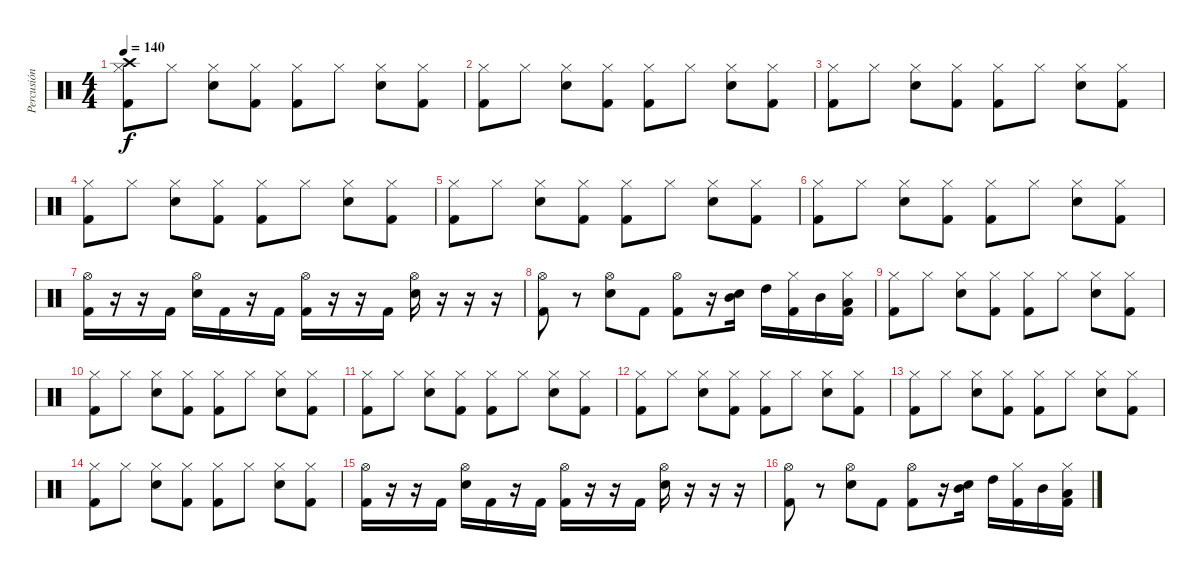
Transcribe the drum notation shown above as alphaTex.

\track ("Percusión" "Percusión") {instrument percussion}
\staff {score}
\articulation defaults
\ts (4 4)
\tempo 140
\clef neutral
\ks c
("Hi-Hat (closed)" "Kick (hit) 2" "Crash high (hit)").8{dy f} "Hi-Hat (closed)".8 ("Hi-Hat (closed)" "Snare (hit) 2").8 ("Hi-Hat (closed)" "Kick (hit) 2").8 ("Hi-Hat (closed)" "Kick (hit) 2").8 "Hi-Hat (closed)".8 ("Hi-Hat (closed)" "Snare (hit) 2").8 ("Hi-Hat (closed)" "Kick (hit) 2").8 |
("Hi-Hat (closed)" "Kick (hit) 2").8 "Hi-Hat (closed)".8 ("Hi-Hat (closed)" "Snare (hit) 2").8 ("Hi-Hat (closed)" "Kick (hit) 2").8 ("Hi-Hat (closed)" "Kick (hit) 2").8 "Hi-Hat (closed)".8 ("Hi-Hat (closed)" "Snare (hit) 2").8 ("Hi-Hat (closed)" "Kick (hit) 2").8 |
("Hi-Hat (closed)" "Kick (hit) 2").8 "Hi-Hat (closed)".8 ("Hi-Hat (closed)" "Snare (hit) 2").8 ("Hi-Hat (closed)" "Kick (hit) 2").8 ("Hi-Hat (closed)" "Kick (hit) 2").8 "Hi-Hat (closed)".8 ("Hi-Hat (closed)" "Snare (hit) 2").8 ("Hi-Hat (closed)" "Kick (hit) 2").8 |
("Hi-Hat (closed)" "Kick (hit) 2").8 "Hi-Hat (closed)".8 ("Hi-Hat (closed)" "Snare (hit) 2").8 ("Hi-Hat (closed)" "Kick (hit) 2").8 ("Hi-Hat (closed)" "Kick (hit) 2").8 "Hi-Hat (closed)".8 ("Hi-Hat (closed)" "Snare (hit) 2").8 ("Hi-Hat (closed)" "Kick (hit) 2").8 |
("Hi-Hat (closed)" "Kick (hit) 2").8 "Hi-Hat (closed)".8 ("Hi-Hat (closed)" "Snare (hit) 2").8 ("Hi-Hat (closed)" "Kick (hit) 2").8 ("Hi-Hat (closed)" "Kick (hit) 2").8 "Hi-Hat (closed)".8 ("Hi-Hat (closed)" "Snare (hit) 2").8 ("Hi-Hat (closed)" "Kick (hit) 2").8 |
("Hi-Hat (closed)" "Kick (hit) 2").8 "Hi-Hat (closed)".8 ("Hi-Hat (closed)" "Snare (hit) 2").8 ("Hi-Hat (closed)" "Kick (hit) 2").8 ("Hi-Hat (closed)" "Kick (hit) 2").8 "Hi-Hat (closed)".8 ("Hi-Hat (closed)" "Snare (hit) 2").8 ("Hi-Hat (closed)" "Kick (hit) 2").8 |
("Hi-Hat (open)" "Kick (hit) 2").16 r.16 r.16 "Kick (hit) 2".16 ("Hi-Hat (open)" "Snare (hit) 2").16 "Kick (hit) 2".16 r.16 "Kick (hit) 2".16 ("Hi-Hat (open)" "Kick (hit) 2").16 r.16 r.16 "Kick (hit) 2".16 ("Hi-Hat (open)" "Snare (hit) 2").16 r.16 r.16 r.16 |
("Hi-Hat (open)" "Kick (hit) 2").8 r.8 ("Hi-Hat (open)" "Snare (hit) 2").8 "Kick (hit) 2".8 ("Hi-Hat (open)" "Kick (hit) 2").8 r.16 ("Mid Tom (hit)" "Snare (hit) 2").16 "High Tom (hit)".16 ("Hi-Hat (closed)" "Kick (hit) 2").16 "Mid Tom (hit)".16 ("Hi-Hat (closed)" "Low Tom (hit)" "Kick (hit) 2").16 |
("Hi-Hat (closed)" "Kick (hit) 2").8 "Hi-Hat (closed)".8 ("Hi-Hat (closed)" "Snare (hit) 2").8 ("Hi-Hat (closed)" "Kick (hit) 2").8 ("Hi-Hat (closed)" "Kick (hit) 2").8 "Hi-Hat (closed)".8 ("Hi-Hat (closed)" "Snare (hit) 2").8 ("Hi-Hat (closed)" "Kick (hit) 2").8 |
("Hi-Hat (closed)" "Kick (hit) 2").8 "Hi-Hat (closed)".8 ("Hi-Hat (closed)" "Snare (hit) 2").8 ("Hi-Hat (closed)" "Kick (hit) 2").8 ("Hi-Hat (closed)" "Kick (hit) 2").8 "Hi-Hat (closed)".8 ("Hi-Hat (closed)" "Snare (hit) 2").8 ("Hi-Hat (closed)" "Kick (hit) 2").8 |
("Hi-Hat (closed)" "Kick (hit) 2").8 "Hi-Hat (closed)".8 ("Hi-Hat (closed)" "Snare (hit) 2").8 ("Hi-Hat (closed)" "Kick (hit) 2").8 ("Hi-Hat (closed)" "Kick (hit) 2").8 "Hi-Hat (closed)".8 ("Hi-Hat (closed)" "Snare (hit) 2").8 ("Hi-Hat (closed)" "Kick (hit) 2").8 |
("Hi-Hat (closed)" "Kick (hit) 2").8 "Hi-Hat (closed)".8 ("Hi-Hat (closed)" "Snare (hit) 2").8 ("Hi-Hat (closed)" "Kick (hit) 2").8 ("Hi-Hat (closed)" "Kick (hit) 2").8 "Hi-Hat (closed)".8 ("Hi-Hat (closed)" "Snare (hit) 2").8 ("Hi-Hat (closed)" "Kick (hit) 2").8 |
("Hi-Hat (closed)" "Kick (hit) 2").8 "Hi-Hat (closed)".8 ("Hi-Hat (closed)" "Snare (hit) 2").8 ("Hi-Hat (closed)" "Kick (hit) 2").8 ("Hi-Hat (closed)" "Kick (hit) 2").8 "Hi-Hat (closed)".8 ("Hi-Hat (closed)" "Snare (hit) 2").8 ("Hi-Hat (closed)" "Kick (hit) 2").8 |
("Hi-Hat (closed)" "Kick (hit) 2").8 "Hi-Hat (closed)".8 ("Hi-Hat (closed)" "Snare (hit) 2").8 ("Hi-Hat (closed)" "Kick (hit) 2").8 ("Hi-Hat (closed)" "Kick (hit) 2").8 "Hi-Hat (closed)".8 ("Hi-Hat (closed)" "Snare (hit) 2").8 ("Hi-Hat (closed)" "Kick (hit) 2").8 |
("Hi-Hat (open)" "Kick (hit) 2").16 r.16 r.16 "Kick (hit) 2".16 ("Hi-Hat (open)" "Snare (hit) 2").16 "Kick (hit) 2".16 r.16 "Kick (hit) 2".16 ("Hi-Hat (open)" "Kick (hit) 2").16 r.16 r.16 "Kick (hit) 2".16 ("Hi-Hat (open)" "Snare (hit) 2").16 r.16 r.16 r.16 |
("Hi-Hat (open)" "Kick (hit) 2").8 r.8 ("Hi-Hat (open)" "Snare (hit) 2").8 "Kick (hit) 2".8 ("Hi-Hat (open)" "Kick (hit) 2").8 r.16 ("Mid Tom (hit)" "Snare (hit) 2").16 "High Tom (hit)".16 ("Hi-Hat (closed)" "Kick (hit) 2").16 "Mid Tom (hit)".16 ("Hi-Hat (closed)" "Low Tom (hit)" "Kick (hit) 2").16
